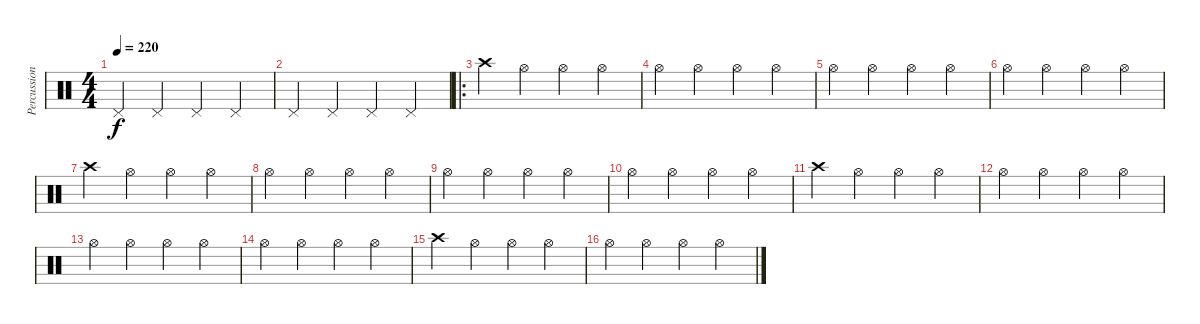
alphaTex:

\track ("Percussion" "Percussion") {instrument percussion}
\staff {score}
\articulation defaults
\ts (4 4)
\tempo 220
\clef neutral
\ks c "Pedal Hi-Hat (hit)".4{dy f} "Pedal Hi-Hat (hit)".4 "Pedal Hi-Hat (hit)".4 "Pedal Hi-Hat (hit)".4
|
"Pedal Hi-Hat (hit)".4 "Pedal Hi-Hat (hit)".4 "Pedal Hi-Hat (hit)".4 "Pedal Hi-Hat (hit)".4 |
\ro "Crash high (hit)".4 "Hi-Hat (open)".4 "Hi-Hat (open)".4 "Hi-Hat (open)".4
|
"Hi-Hat (open)".4 "Hi-Hat (open)".4 "Hi-Hat (open)".4 "Hi-Hat (open)".4 |
"Hi-Hat (open)".4 "Hi-Hat (open)".4 "Hi-Hat (open)".4 "Hi-Hat (open)".4 |
"Hi-Hat (open)".4 "Hi-Hat (open)".4 "Hi-Hat (open)".4 "Hi-Hat (open)".4 |
"Crash high (hit)".4 "Hi-Hat (open)".4 "Hi-Hat (open)".4 "Hi-Hat (open)".4 |
"Hi-Hat (open)".4 "Hi-Hat (open)".4 "Hi-Hat (open)".4 "Hi-Hat (open)".4 |
"Hi-Hat (open)".4 "Hi-Hat (open)".4 "Hi-Hat (open)".4 "Hi-Hat (open)".4 |
"Hi-Hat (open)".4 "Hi-Hat (open)".4 "Hi-Hat (open)".4 "Hi-Hat (open)".4 |
"Crash high (hit)".4 "Hi-Hat (open)".4 "Hi-Hat (open)".4 "Hi-Hat (open)".4 |
"Hi-Hat (open)".4 "Hi-Hat (open)".4 "Hi-Hat (open)".4 "Hi-Hat (open)".4 |
"Hi-Hat (open)".4 "Hi-Hat (open)".4 "Hi-Hat (open)".4 "Hi-Hat (open)".4 |
"Hi-Hat (open)".4 "Hi-Hat (open)".4 "Hi-Hat (open)".4 "Hi-Hat (open)".4 |
"Crash high (hit)".4 "Hi-Hat (open)".4 "Hi-Hat (open)".4 "Hi-Hat (open)".4 |
"Hi-Hat (open)".4 "Hi-Hat (open)".4 "Hi-Hat (open)".4 "Hi-Hat (open)".4
